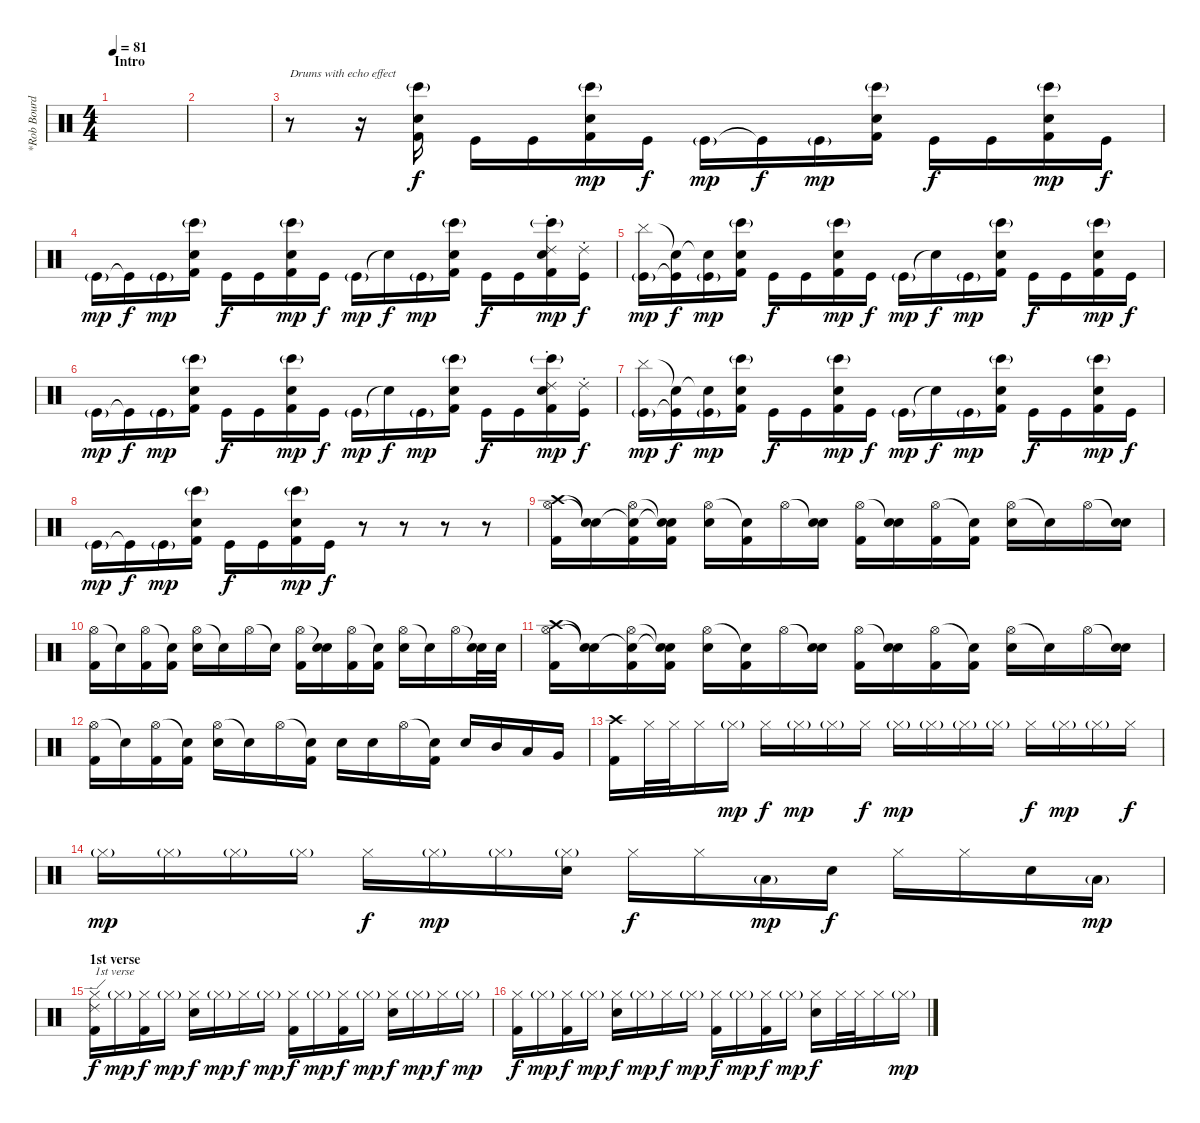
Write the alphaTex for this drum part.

\track ("*Rob Bourdon (Drums)" "*Rob Bourd") {instrument percussion}
\staff {score}
\articulation defaults
\ts (4 4)
\section ("" "Intro")
\tempo 81
\clef neutral
\ks c
|
|
r.8{txt "Drums with echo effect" volume 10} r.16 ("Bongo High (hit)"{g} "Snare (hit) 2" "Kick (hit) 2").16{volume 7 balance 8} "Kick (hit)".16{dy f balance 16} "Kick (hit)".16{balance 0} ("Bongo High (hit)"{g} "Snare (hit) 2" "Kick (hit) 2").16{dy mp balance 8} "Kick (hit)".16{dy f balance 16} "Kick (hit)"{g}.16{dy mp} "Kick (hit)"{t}.16{dy f} "Kick (hit)"{g}.16{dy mp balance 0} ("Bongo High (hit)"{g} "Snare (hit) 2" "Kick (hit) 2").16{balance 8} "Kick (hit)".16{dy f balance 16} "Kick (hit)".16{balance 0} ("Bongo High (hit)"{g} "Snare (hit) 2" "Kick (hit) 2").16{dy mp balance 8} "Kick (hit)".16{dy f} |
"Kick (hit)"{g}.16{dy mp volume 10 balance 16} "Kick (hit)"{t}.16{dy f} "Kick (hit)"{g}.16{dy mp balance 0} ("Bongo High (hit)"{g} "Snare (hit) 2" "Kick (hit) 2").16{balance 8} "Kick (hit)".16{dy f balance 16} "Kick (hit)".16{balance 0} ("Bongo High (hit)"{g} "Snare (hit) 2" "Kick (hit) 2").16{dy mp balance 8} "Kick (hit)".16{dy f} "Kick (hit)"{g}.16{dy mp balance 16} "Snare (hit)"{t}.16{dy f} "Kick (hit)"{g}.16{dy mp balance 0} ("Bongo High (hit)"{g} "Snare (hit) 2" "Kick (hit) 2").16{balance 8} "Kick (hit)".16{dy f balance 16} "Kick (hit)".16{balance 0} ("Ride (choke) 2" "Bongo High (hit)"{g} "Snare (hit) 2" "Kick (hit) 2").16{dy mp balance 8} ("Ride (choke) 2" "Kick (hit)").16{dy f} |
("Cymbal (hit)" "Kick (hit)"{g}).16{dy mp volume 10 balance 16} ("Snare (hit)"{t} "Kick (hit)"{t}).16{dy f} ("Snare (hit)"{t} "Kick (hit)"{g}).16{dy mp balance 0} ("Bongo High (hit)"{g} "Snare (hit) 2" "Kick (hit) 2").16{balance 8} "Kick (hit)".16{dy f balance 16} "Kick (hit)".16{balance 0} ("Bongo High (hit)"{g} "Snare (hit) 2" "Kick (hit) 2").16{dy mp balance 8} "Kick (hit)".16{dy f} "Kick (hit)"{g}.16{dy mp balance 16} "Snare (hit)"{t}.16{dy f} "Kick (hit)"{g}.16{dy mp balance 0} ("Bongo High (hit)"{g} "Snare (hit) 2" "Kick (hit) 2").16{balance 8} "Kick (hit)".16{dy f balance 16} "Kick (hit)".16{balance 0} ("Bongo High (hit)"{g} "Snare (hit) 2" "Kick (hit) 2").16{dy mp balance 8} "Kick (hit)".16{dy f} |
"Kick (hit)"{g}.16{dy mp volume 10 balance 16} "Kick (hit)"{t}.16{dy f} "Kick (hit)"{g}.16{dy mp balance 0} ("Bongo High (hit)"{g} "Snare (hit) 2" "Kick (hit) 2").16{balance 8} "Kick (hit)".16{dy f balance 16} "Kick (hit)".16{balance 0} ("Bongo High (hit)"{g} "Snare (hit) 2" "Kick (hit) 2").16{dy mp balance 8} "Kick (hit)".16{dy f} "Kick (hit)"{g}.16{dy mp balance 16} "Snare (hit)"{t}.16{dy f} "Kick (hit)"{g}.16{dy mp balance 0} ("Bongo High (hit)"{g} "Snare (hit) 2" "Kick (hit) 2").16{balance 8} "Kick (hit)".16{dy f balance 16} "Kick (hit)".16{balance 0} ("Ride (choke) 2" "Bongo High (hit)"{g} "Snare (hit) 2" "Kick (hit) 2").16{dy mp balance 8} ("Ride (choke) 2" "Kick (hit)").16{dy f} |
("Cymbal (hit)" "Kick (hit)"{g}).16{dy mp volume 10 balance 16} ("Snare (hit)"{t} "Kick (hit)"{t}).16{dy f} ("Snare (hit)"{t} "Kick (hit)"{g}).16{dy mp balance 0} ("Bongo High (hit)"{g} "Snare (hit) 2" "Kick (hit) 2").16{balance 8} "Kick (hit)".16{dy f balance 16} "Kick (hit)".16{balance 0} ("Bongo High (hit)"{g} "Snare (hit) 2" "Kick (hit) 2").16{dy mp balance 8} "Kick (hit)".16{dy f} "Kick (hit)"{g}.16{dy mp balance 16} "Snare (hit)"{t}.16{dy f} "Kick (hit)"{g}.16{dy mp balance 0} ("Bongo High (hit)"{g} "Snare (hit) 2" "Kick (hit) 2").16{balance 8} "Kick (hit)".16{dy f balance 16} "Kick (hit)".16{balance 0} ("Bongo High (hit)"{g} "Snare (hit) 2" "Kick (hit) 2").16{dy mp balance 8} "Kick (hit)".16{dy f} |
"Kick (hit)"{g}.16{dy mp volume 10 balance 16} "Kick (hit)"{t}.16{dy f} "Kick (hit)"{g}.16{dy mp balance 0} ("Bongo High (hit)"{g} "Snare (hit) 2" "Kick (hit) 2").16{balance 8} "Kick (hit)".16{dy f balance 16} "Kick (hit)".16{balance 0} ("Bongo High (hit)"{g} "Snare (hit) 2" "Kick (hit) 2").16{dy mp balance 8} "Kick (hit)".16{dy f} r.8 r.8 r.8 r.8 |
("Crash high (hit)" "Hi-Hat (open)" "Kick (hit) 2").16{volume 12} ("Snare (hit)"{t} "Snare (hit)"{t}).16 ("Snare (hit)"{t} "Hi-Hat (open)" "Kick (hit) 2").16 ("Snare (hit)"{t} "Snare (hit)"{t} "Kick (hit) 2").16 ("Hi-Hat (open)" "Electric Snare (hit)").16 ("Snare (hit)"{t} "Kick (hit) 2").16 "Hi-Hat (open)".16 ("Snare (hit)"{t} "Electric Snare (hit)").16 ("Hi-Hat (open)" "Kick (hit) 2").16 ("Snare (hit)"{t} "Electric Snare (hit)").16 ("Hi-Hat (open)" "Kick (hit) 2").16 ("Snare (hit)"{t} "Kick (hit) 2").16 ("Hi-Hat (open)" "Electric Snare (hit)").16 "Snare (hit)"{t}.16 "Hi-Hat (open)".16 ("Snare (hit)"{t} "Electric Snare (hit)").16 |
("Hi-Hat (open)" "Kick (hit) 2").16 "Snare (hit)"{t}.16 ("Hi-Hat (open)" "Kick (hit) 2").16 ("Snare (hit)"{t} "Kick (hit) 2").16 ("Hi-Hat (open)" "Electric Snare (hit)").16 "Snare (hit)"{t}.16 "Hi-Hat (open)".16 "Snare (hit)"{t}.16 ("Hi-Hat (open)" "Kick (hit) 2").16 ("Snare (hit)"{t} "Electric Snare (hit)").16 ("Hi-Hat (open)" "Kick (hit) 2").16 ("Snare (hit)"{t} "Kick (hit) 2").16 ("Hi-Hat (open)" "Electric Snare (hit)").16 "Snare (hit)"{t}.16 "Hi-Hat (open)".16 ("Snare (hit)"{t} "Electric Snare (hit)").32 "Electric Snare (hit)".32 |
("Crash high (hit)" "Hi-Hat (open)" "Kick (hit) 2").16 ("Snare (hit)"{t} "Snare (hit)"{t}).16 ("Snare (hit)"{t} "Hi-Hat (open)" "Kick (hit) 2").16 ("Snare (hit)"{t} "Snare (hit)"{t} "Kick (hit) 2").16 ("Hi-Hat (open)" "Electric Snare (hit)").16 ("Snare (hit)"{t} "Kick (hit) 2").16 "Hi-Hat (open)".16 ("Snare (hit)"{t} "Electric Snare (hit)").16 ("Hi-Hat (open)" "Kick (hit) 2").16 ("Snare (hit)"{t} "Electric Snare (hit)").16 ("Hi-Hat (open)" "Kick (hit) 2").16 ("Snare (hit)"{t} "Kick (hit) 2").16 ("Hi-Hat (open)" "Electric Snare (hit)").16 "Snare (hit)"{t}.16 "Hi-Hat (open)".16 ("Snare (hit)"{t} "Electric Snare (hit)").16 |
("Hi-Hat (open)" "Kick (hit) 2").16 "Snare (hit)"{t}.16 ("Hi-Hat (open)" "Kick (hit) 2").16 ("Snare (hit)"{t} "Kick (hit) 2").16 ("Hi-Hat (open)" "Electric Snare (hit)").16 "Snare (hit)"{t}.16 "Hi-Hat (open)".16 ("Snare (hit)"{t} "Kick (hit) 2").16 "Electric Snare (hit)".16 "Electric Snare (hit)".16 "Hi-Hat (open)".16 ("Snare (hit)"{t} "Kick (hit) 2").16 "Electric Snare (hit)".16 "Mid Tom (hit)".16 "Low Tom (hit)".16 "Very Low Tom (hit)".16 |
("Crash high (hit)" "Kick (hit) 2").16 "Hi-Hat (closed)".32 "Hi-Hat (closed)".32 "Hi-Hat (closed)".16 "Hi-Hat (closed)"{g}.16{dy mp} "Hi-Hat (closed)".16{dy f} "Hi-Hat (closed)"{g}.16{dy mp} "Hi-Hat (closed)"{g}.16 "Hi-Hat (closed)".16{dy f} "Hi-Hat (closed)"{g}.16{dy mp} "Hi-Hat (closed)"{g}.16 "Hi-Hat (closed)"{g}.16 "Hi-Hat (closed)"{g}.16 "Hi-Hat (closed)".16{dy f} "Hi-Hat (closed)"{g}.16{dy mp} "Hi-Hat (closed)"{g}.16 "Hi-Hat (closed)".16{dy f} |
"Hi-Hat (closed)"{g}.16{dy mp} "Hi-Hat (closed)"{g}.16 "Hi-Hat (closed)"{g}.16 "Hi-Hat (closed)"{g}.16 "Hi-Hat (closed)".16{dy f} "Hi-Hat (closed)"{g}.16{dy mp} "Hi-Hat (closed)"{g}.16 ("Hi-Hat (closed)"{g} "Electric Snare (hit)").16 "Hi-Hat (closed)".16{dy f} "Hi-Hat (closed)".16 "Low Tom (hit)"{g}.16{dy mp} "Electric Snare (hit)".16{dy f} "Hi-Hat (closed)".16 "Hi-Hat (closed)".16 "Electric Snare (hit)".16 "Low Tom (hit)"{g}.16{dy mp} |
\section ("" "1st verse")
("Ride (edge) 2" "Hi-Hat (closed)" "Kick (hit) 2").16{txt "1st verse" dy f} "Hi-Hat (closed)"{g}.16{dy mp} ("Hi-Hat (closed)" "Kick (hit) 2").16{dy f} "Hi-Hat (closed)"{g}.16{dy mp} ("Hi-Hat (closed)" "Electric Snare (hit)").16{dy f} "Hi-Hat (closed)"{g}.16{dy mp} "Hi-Hat (closed)".16{dy f} "Hi-Hat (closed)"{g}.16{dy mp} ("Hi-Hat (closed)" "Kick (hit) 2").16{dy f} "Hi-Hat (closed)"{g}.16{dy mp} ("Hi-Hat (closed)" "Kick (hit) 2").16{dy f} "Hi-Hat (closed)"{g}.16{dy mp} ("Hi-Hat (closed)" "Electric Snare (hit)").16{dy f} "Hi-Hat (closed)"{g}.16{dy mp} "Hi-Hat (closed)".16{dy f} "Hi-Hat (closed)"{g}.16{dy mp} |
("Hi-Hat (closed)" "Kick (hit) 2").16{dy f} "Hi-Hat (closed)"{g}.16{dy mp} ("Hi-Hat (closed)" "Kick (hit) 2").16{dy f} "Hi-Hat (closed)"{g}.16{dy mp} ("Hi-Hat (closed)" "Electric Snare (hit)").16{dy f} "Hi-Hat (closed)"{g}.16{dy mp} "Hi-Hat (closed)".16{dy f} "Hi-Hat (closed)"{g}.16{dy mp} ("Hi-Hat (closed)" "Kick (hit) 2").16{dy f} "Hi-Hat (closed)"{g}.16{dy mp} ("Hi-Hat (closed)" "Kick (hit) 2").16{dy f} "Hi-Hat (closed)"{g}.16{dy mp} ("Hi-Hat (closed)" "Electric Snare (hit)").16{dy f} "Hi-Hat (closed)".32 "Hi-Hat (closed)".32 "Hi-Hat (closed)".16 "Hi-Hat (closed)"{g}.16{dy mp}
